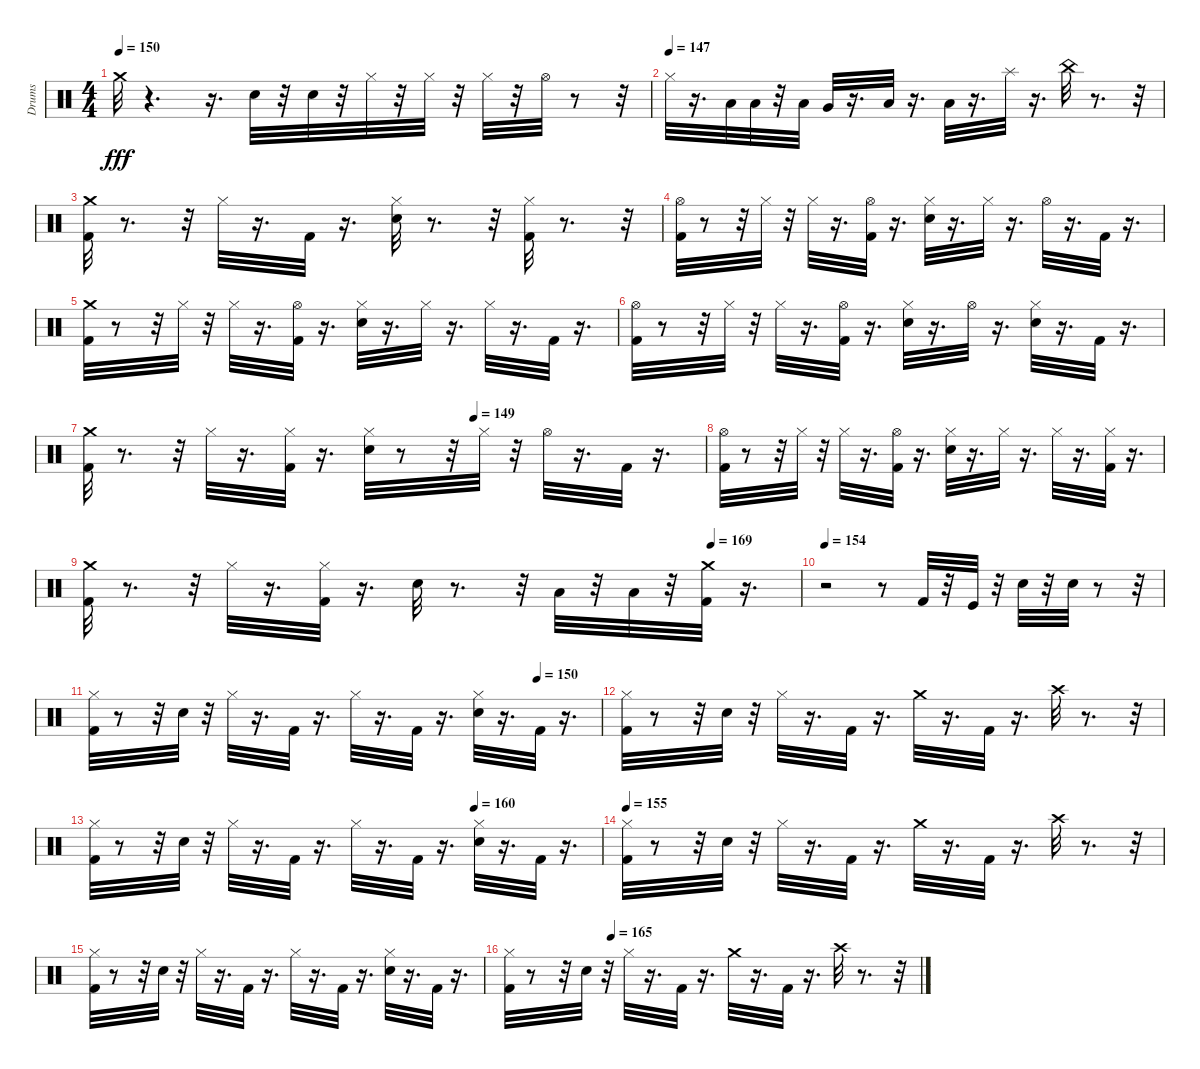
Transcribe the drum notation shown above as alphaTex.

\track ("Drums" "Drums") {instrument percussion}
\staff {score}
\articulation defaults
\ts (4 4)
\tempo 150
\clef neutral
\ks c "Crash medium (hit)".32{dy fff}
r.4{d} r.16{d} "Snare (hit) 2".32 r.32 "Snare (hit) 2".32 r.32 "Hi-Hat (closed)".32 r.32 "Hi-Hat (closed)".32 r.32 "Hi-Hat (closed)".32 r.32 "Hi-Hat (open)".32 r.8 r.32 |
\tempo (147)
"Hi-Hat (closed)".32 r.16{d} "Low Tom (hit)".32 "Low Tom (hit)".32 r.32 "Low Tom (hit)".32 "Very Low Tom (hit)".32 r.16{d} "Low Floor Tom (hit)".32 r.16{d} "Low Floor Tom (hit)".32 r.16{d} "Splash (hit)".32 r.16{d} "China (hit)".32 r.8{d} r.32 |
("Kick (hit) 2" "Crash medium (hit)").32 r.8{d} r.32 "Hi-Hat (closed)".32 r.16{d} "Kick (hit) 2".32 r.16{d} ("Snare (hit) 2" "Hi-Hat (closed)").32 r.8{d} r.32 ("Kick (hit) 2" "Hi-Hat (closed)").32 r.8{d} r.32 |
("Kick (hit) 2" "Hi-Hat (open)").32 r.8 r.32 "Hi-Hat (closed)".32 r.32 "Hi-Hat (closed)".32 r.16{d} ("Kick (hit) 2" "Hi-Hat (open)").32 r.16{d} ("Snare (hit) 2" "Hi-Hat (closed)").32 r.16{d} "Hi-Hat (closed)".32 r.16{d} "Hi-Hat (open)".32 r.16{d} "Kick (hit) 2".32 r.16{d} |
("Kick (hit) 2" "Crash medium (hit)").32 r.8 r.32 "Hi-Hat (closed)".32 r.32 "Hi-Hat (closed)".32 r.16{d} ("Kick (hit) 2" "Hi-Hat (open)").32 r.16{d} ("Snare (hit) 2" "Hi-Hat (closed)").32 r.16{d} "Hi-Hat (closed)".32 r.16{d} "Hi-Hat (closed)".32 r.16{d} "Kick (hit) 2".32 r.16{d} |
("Kick (hit) 2" "Hi-Hat (open)").32 r.8 r.32 "Hi-Hat (closed)".32 r.32 "Hi-Hat (closed)".32 r.16{d} ("Kick (hit) 2" "Hi-Hat (open)").32 r.16{d} ("Snare (hit) 2" "Hi-Hat (closed)").32 r.16{d} "Hi-Hat (open)".32 r.16{d} ("Snare (hit) 2" "Hi-Hat (closed)").32 r.16{d} "Kick (hit) 2".32 r.16{d} |
\tempo (149 0.625)
("Kick (hit) 2" "Crash medium (hit)").32 r.8{d} r.32 "Hi-Hat (closed)".32 r.16{d} ("Kick (hit) 2" "Hi-Hat (closed)").32 r.16{d} ("Snare (hit) 2" "Hi-Hat (closed)").32 r.8 r.32 "Hi-Hat (closed)".32 r.32 "Hi-Hat (open)".32 r.16{d} "Kick (hit) 2".32 r.16{d} |
("Kick (hit) 2" "Hi-Hat (open)").32 r.8 r.32 "Hi-Hat (closed)".32 r.32 "Hi-Hat (closed)".32 r.16{d} ("Kick (hit) 2" "Hi-Hat (open)").32 r.16{d} ("Snare (hit) 2" "Hi-Hat (closed)").32 r.16{d} "Hi-Hat (closed)".32 r.16{d} "Hi-Hat (closed)".32 r.16{d} ("Kick (hit) 2" "Hi-Hat (closed)").32 r.16{d} |
\tempo (169 0.875)
("Kick (hit) 2" "Crash medium (hit)").32 r.8{d} r.32 "Hi-Hat (closed)".32 r.16{d} ("Kick (hit) 2" "Hi-Hat (closed)").32 r.16{d} "Snare (hit) 2".32 r.8{d} r.32 "Low Floor Tom (hit)".32 r.32 "Low Floor Tom (hit)".32 r.32 ("Kick (hit) 2" "Crash medium (hit)").32 r.16{d} |
\tempo 154
r.2 r.8 "Kick (hit) 2".32 r.32 "Kick (hit)".32 r.32 "Snare (hit) 2".32 r.32 "Snare (hit) 2".32 r.8 r.32 |
\tempo (150 0.875)
("Kick (hit) 2" "Hi-Hat (closed)").32 r.8 r.32 "Snare (hit) 2".32 r.32 "Hi-Hat (closed)".32 r.16{d} "Kick (hit) 2".32 r.16{d} "Hi-Hat (closed)".32 r.16{d} "Kick (hit) 2".32 r.16{d} ("Snare (hit) 2" "Hi-Hat (closed)").32 r.16{d} "Kick (hit) 2".32 r.16{d} |
("Kick (hit) 2" "Hi-Hat (closed)").32 r.8 r.32 "Snare (hit) 2".32 r.32 "Hi-Hat (closed)".32 r.16{d} "Kick (hit) 2".32 r.16{d} "Crash medium (hit)".32 r.16{d} "Kick (hit) 2".32 r.16{d} "Crash high (hit)".32 r.8{d} r.32 |
\tempo (160 0.75)
("Kick (hit) 2" "Hi-Hat (closed)").32 r.8 r.32 "Snare (hit) 2".32 r.32 "Hi-Hat (closed)".32 r.16{d} "Kick (hit) 2".32 r.16{d} "Hi-Hat (closed)".32 r.16{d} "Kick (hit) 2".32 r.16{d} ("Snare (hit) 2" "Hi-Hat (closed)").32 r.16{d} "Kick (hit) 2".32 r.16{d} |
\tempo 155
("Kick (hit) 2" "Hi-Hat (closed)").32 r.8 r.32 "Snare (hit) 2".32 r.32 "Hi-Hat (closed)".32 r.16{d} "Kick (hit) 2".32 r.16{d} "Crash medium (hit)".32 r.16{d} "Kick (hit) 2".32 r.16{d} "Crash high (hit)".32 r.8{d} r.32 |
("Kick (hit) 2" "Hi-Hat (closed)").32 r.8 r.32 "Snare (hit) 2".32 r.32 "Hi-Hat (closed)".32 r.16{d} "Kick (hit) 2".32 r.16{d} "Hi-Hat (closed)".32 r.16{d} "Kick (hit) 2".32 r.16{d} ("Snare (hit) 2" "Hi-Hat (closed)").32 r.16{d} "Kick (hit) 2".32 r.16{d} |
\tempo (165 0.25)
("Kick (hit) 2" "Hi-Hat (closed)").32 r.8 r.32 "Snare (hit) 2".32 r.32 "Hi-Hat (closed)".32 r.16{d} "Kick (hit) 2".32 r.16{d} "Crash medium (hit)".32 r.16{d} "Kick (hit) 2".32 r.16{d} "Crash high (hit)".32 r.8{d} r.32
